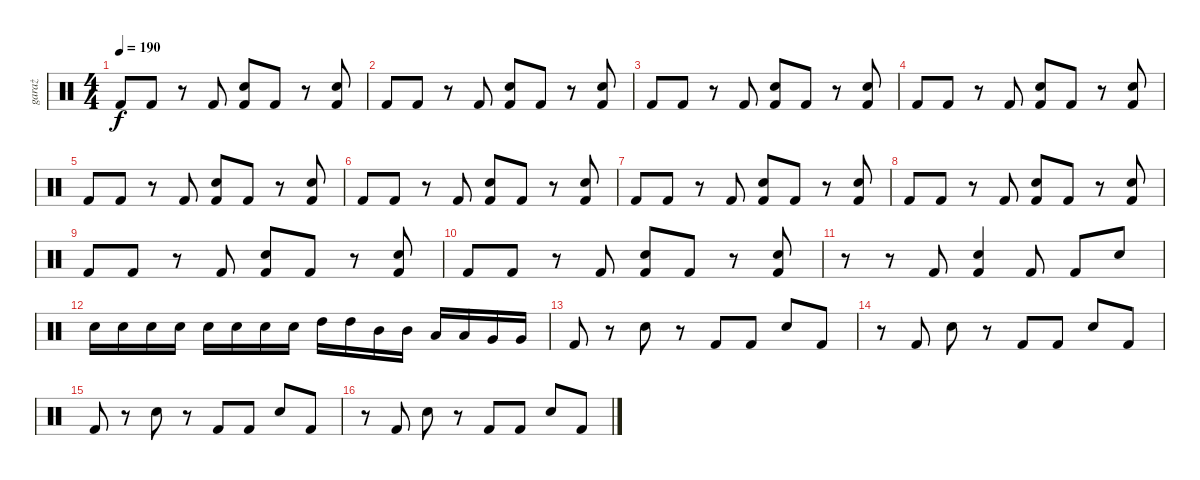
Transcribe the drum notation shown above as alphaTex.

\track ("garaż" "garaż") {instrument percussion}
\staff {score}
\articulation defaults
\ts (4 4)
\tempo 190
\clef neutral
\ks c "Kick (hit) 2".8{dy f} "Kick (hit) 2".8
r.8 "Kick (hit) 2".8 ("Snare (hit) 2" "Kick (hit) 2").8 "Kick (hit) 2".8 r.8 ("Snare (hit) 2" "Kick (hit) 2").8 |
"Kick (hit) 2".8 "Kick (hit) 2".8 r.8 "Kick (hit) 2".8 ("Snare (hit) 2" "Kick (hit) 2").8 "Kick (hit) 2".8 r.8 ("Snare (hit) 2" "Kick (hit) 2").8 |
"Kick (hit) 2".8 "Kick (hit) 2".8 r.8 "Kick (hit) 2".8 ("Snare (hit) 2" "Kick (hit) 2").8 "Kick (hit) 2".8 r.8 ("Snare (hit) 2" "Kick (hit) 2").8 |
"Kick (hit) 2".8 "Kick (hit) 2".8 r.8 "Kick (hit) 2".8 ("Snare (hit) 2" "Kick (hit) 2").8 "Kick (hit) 2".8 r.8 ("Snare (hit) 2" "Kick (hit) 2").8 |
"Kick (hit) 2".8 "Kick (hit) 2".8 r.8 "Kick (hit) 2".8 ("Snare (hit) 2" "Kick (hit) 2").8 "Kick (hit) 2".8 r.8 ("Snare (hit) 2" "Kick (hit) 2").8 |
"Kick (hit) 2".8 "Kick (hit) 2".8 r.8 "Kick (hit) 2".8 ("Snare (hit) 2" "Kick (hit) 2").8 "Kick (hit) 2".8 r.8 ("Snare (hit) 2" "Kick (hit) 2").8 |
"Kick (hit) 2".8 "Kick (hit) 2".8 r.8 "Kick (hit) 2".8 ("Snare (hit) 2" "Kick (hit) 2").8 "Kick (hit) 2".8 r.8 ("Snare (hit) 2" "Kick (hit) 2").8 |
"Kick (hit) 2".8 "Kick (hit) 2".8 r.8 "Kick (hit) 2".8 ("Snare (hit) 2" "Kick (hit) 2").8 "Kick (hit) 2".8 r.8 ("Snare (hit) 2" "Kick (hit) 2").8 |
"Kick (hit) 2".8 "Kick (hit) 2".8 r.8 "Kick (hit) 2".8 ("Snare (hit) 2" "Kick (hit) 2").8 "Kick (hit) 2".8 r.8 ("Snare (hit) 2" "Kick (hit) 2").8 |
"Kick (hit) 2".8 "Kick (hit) 2".8 r.8 "Kick (hit) 2".8 ("Snare (hit) 2" "Kick (hit) 2").8 "Kick (hit) 2".8 r.8 ("Snare (hit) 2" "Kick (hit) 2").8 |
r.8 r.8 "Kick (hit) 2".8 ("Snare (hit) 2" "Kick (hit) 2").4 "Kick (hit) 2".8 "Kick (hit) 2".8 "Snare (hit) 2".8 |
"Snare (hit) 2".16 "Snare (hit) 2".16 "Snare (hit) 2".16 "Snare (hit) 2".16 "Snare (hit) 2".16 "Snare (hit) 2".16 "Snare (hit) 2".16 "Snare (hit) 2".16 "High Tom (hit)".16 "High Tom (hit)".16 "Mid Tom (hit)".16 "Mid Tom (hit)".16 "Low Tom (hit)".16 "Low Tom (hit)".16 "Very Low Tom (hit)".16 "Very Low Tom (hit)".16 |
"Kick (hit) 2".8 r.8 "Snare (hit) 2".8 r.8 "Kick (hit) 2".8 "Kick (hit) 2".8 "Snare (hit) 2".8 "Kick (hit) 2".8 |
r.8 "Kick (hit) 2".8 "Snare (hit) 2".8 r.8 "Kick (hit) 2".8 "Kick (hit) 2".8 "Snare (hit) 2".8 "Kick (hit) 2".8 |
"Kick (hit) 2".8 r.8 "Snare (hit) 2".8 r.8 "Kick (hit) 2".8 "Kick (hit) 2".8 "Snare (hit) 2".8 "Kick (hit) 2".8 |
r.8 "Kick (hit) 2".8 "Snare (hit) 2".8 r.8 "Kick (hit) 2".8 "Kick (hit) 2".8 "Snare (hit) 2".8 "Kick (hit) 2".8
